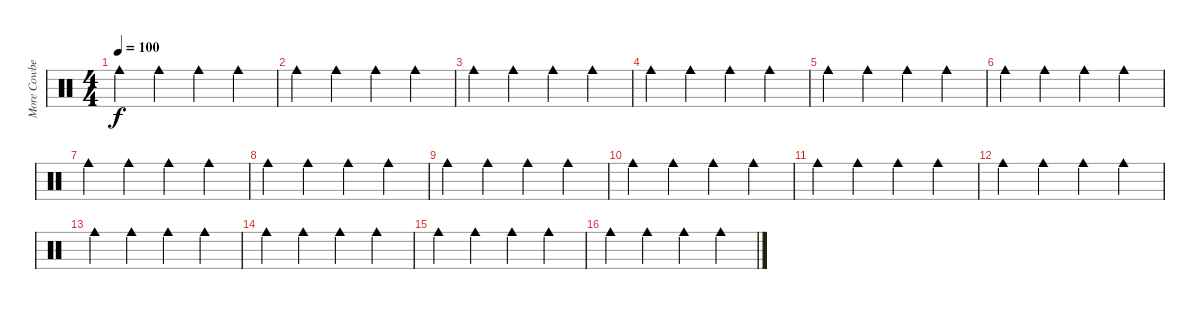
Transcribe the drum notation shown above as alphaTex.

\track ("More Cowbell!!" "More Cowbe") {instrument percussion}
\staff {score}
\articulation defaults
\ts (4 4)
\tempo 100
\clef neutral
\ks c "Cowbell medium (hit)".4{dy f} "Cowbell medium (hit)".4 "Cowbell medium (hit)".4 "Cowbell medium (hit)".4
|
"Cowbell medium (hit)".4 "Cowbell medium (hit)".4 "Cowbell medium (hit)".4 "Cowbell medium (hit)".4 |
"Cowbell medium (hit)".4 "Cowbell medium (hit)".4 "Cowbell medium (hit)".4 "Cowbell medium (hit)".4 |
"Cowbell medium (hit)".4 "Cowbell medium (hit)".4 "Cowbell medium (hit)".4 "Cowbell medium (hit)".4 |
"Cowbell medium (hit)".4 "Cowbell medium (hit)".4 "Cowbell medium (hit)".4 "Cowbell medium (hit)".4 |
"Cowbell medium (hit)".4 "Cowbell medium (hit)".4 "Cowbell medium (hit)".4 "Cowbell medium (hit)".4 |
"Cowbell medium (hit)".4 "Cowbell medium (hit)".4 "Cowbell medium (hit)".4 "Cowbell medium (hit)".4 |
"Cowbell medium (hit)".4 "Cowbell medium (hit)".4 "Cowbell medium (hit)".4 "Cowbell medium (hit)".4 |
"Cowbell medium (hit)".4 "Cowbell medium (hit)".4 "Cowbell medium (hit)".4 "Cowbell medium (hit)".4 |
"Cowbell medium (hit)".4 "Cowbell medium (hit)".4 "Cowbell medium (hit)".4 "Cowbell medium (hit)".4 |
"Cowbell medium (hit)".4 "Cowbell medium (hit)".4 "Cowbell medium (hit)".4 "Cowbell medium (hit)".4 |
"Cowbell medium (hit)".4 "Cowbell medium (hit)".4 "Cowbell medium (hit)".4 "Cowbell medium (hit)".4 |
"Cowbell medium (hit)".4 "Cowbell medium (hit)".4 "Cowbell medium (hit)".4 "Cowbell medium (hit)".4 |
"Cowbell medium (hit)".4 "Cowbell medium (hit)".4 "Cowbell medium (hit)".4 "Cowbell medium (hit)".4 |
"Cowbell medium (hit)".4 "Cowbell medium (hit)".4 "Cowbell medium (hit)".4 "Cowbell medium (hit)".4 |
"Cowbell medium (hit)".4 "Cowbell medium (hit)".4 "Cowbell medium (hit)".4 "Cowbell medium (hit)".4
